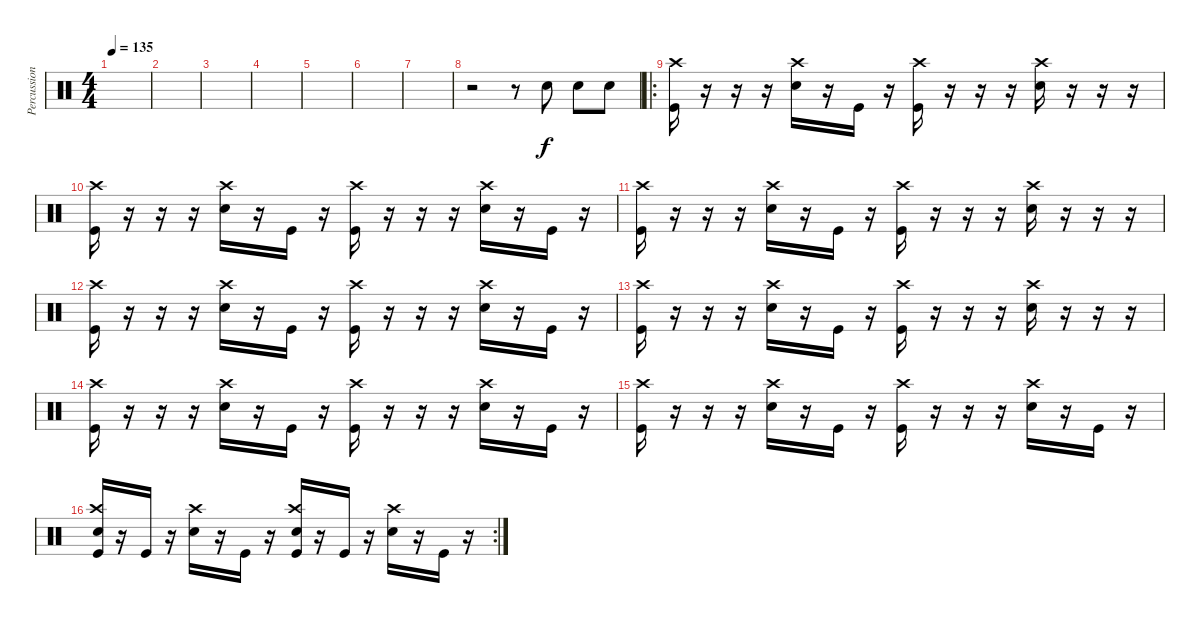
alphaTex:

\track ("Percussion" "Percussion") {instrument percussion}
\staff {score}
\articulation defaults
\ts (4 4)
\tempo 135
\clef neutral
\ks c
|
|
|
|
|
|
|
r.2 r.8 "Snare (hit) 2".8 "Snare (hit) 2".8 "Snare (hit) 2".8 |
\ro
("Crash high (hit)" "Kick (hit)").16 r.16 r.16 r.16 ("Crash high (hit)" "Snare (hit) 2").16 r.16 "Kick (hit)".16 r.16 ("Crash high (hit)" "Kick (hit)").16 r.16 r.16 r.16 ("Crash high (hit)" "Snare (hit) 2").16 r.16 r.16 r.16 |
("Crash high (hit)" "Kick (hit)").16 r.16 r.16 r.16 ("Crash high (hit)" "Snare (hit) 2").16 r.16 "Kick (hit)".16 r.16 ("Crash high (hit)" "Kick (hit)").16 r.16 r.16 r.16 ("Crash high (hit)" "Snare (hit) 2").16 r.16 "Kick (hit)".16 r.16 |
("Crash high (hit)" "Kick (hit)").16 r.16 r.16 r.16 ("Crash high (hit)" "Snare (hit) 2").16 r.16 "Kick (hit)".16 r.16 ("Crash high (hit)" "Kick (hit)").16 r.16 r.16 r.16 ("Crash high (hit)" "Snare (hit) 2").16 r.16 r.16 r.16 |
("Crash high (hit)" "Kick (hit)").16 r.16 r.16 r.16 ("Crash high (hit)" "Snare (hit) 2").16 r.16 "Kick (hit)".16 r.16 ("Crash high (hit)" "Kick (hit)").16 r.16 r.16 r.16 ("Crash high (hit)" "Snare (hit) 2").16 r.16 "Kick (hit)".16 r.16 |
("Crash high (hit)" "Kick (hit)").16 r.16 r.16 r.16 ("Crash high (hit)" "Snare (hit) 2").16 r.16 "Kick (hit)".16 r.16 ("Crash high (hit)" "Kick (hit)").16 r.16 r.16 r.16 ("Crash high (hit)" "Snare (hit) 2").16 r.16 r.16 r.16 |
("Crash high (hit)" "Kick (hit)").16 r.16 r.16 r.16 ("Crash high (hit)" "Snare (hit) 2").16 r.16 "Kick (hit)".16 r.16 ("Crash high (hit)" "Kick (hit)").16 r.16 r.16 r.16 ("Crash high (hit)" "Snare (hit) 2").16 r.16 "Kick (hit)".16 r.16 |
("Crash high (hit)" "Kick (hit)").16 r.16 r.16 r.16 ("Crash high (hit)" "Snare (hit) 2").16 r.16 "Kick (hit)".16 r.16 ("Crash high (hit)" "Kick (hit)").16 r.16 r.16 r.16 ("Crash high (hit)" "Snare (hit) 2").16 r.16 "Kick (hit)".16 r.16 |
\rc 2
("Crash high (hit)" "Snare (hit) 2" "Kick (hit)").16 r.16 "Kick (hit)".16 r.16 ("Crash high (hit)" "Snare (hit) 2").16 r.16 "Kick (hit)".16 r.16 ("Crash high (hit)" "Snare (hit) 2" "Kick (hit)").16 r.16 "Kick (hit)".16 r.16 ("Crash high (hit)" "Snare (hit) 2").16 r.16 "Kick (hit)".16 r.16
